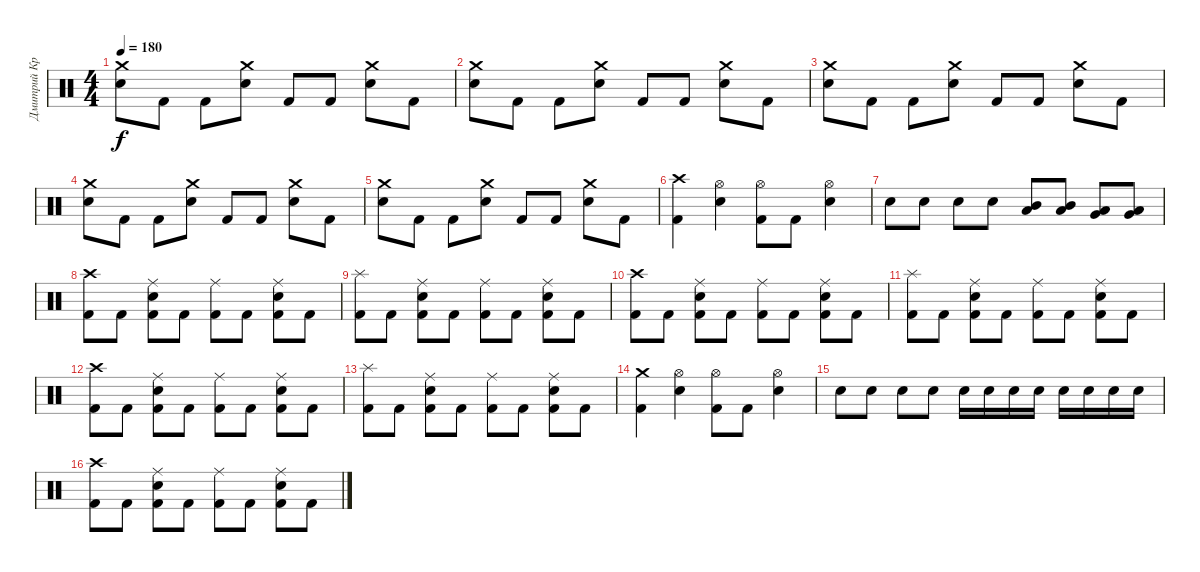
\track ("Дмитрий Кривенков" "Дмитрий Кр") {instrument percussion}
\staff {score}
\articulation defaults
\ts (4 4)
\tempo 180
\clef neutral
\ks c
("Crash medium (hit)" "Electric Snare (hit)").8{dy f} "Kick (hit) 2".8 "Kick (hit) 2".8 ("Electric Snare (hit)" "Crash medium (hit)").8 "Kick (hit) 2".8 "Kick (hit) 2".8 ("Crash medium (hit)" "Electric Snare (hit)").8 "Kick (hit) 2".8 |
("Crash medium (hit)" "Electric Snare (hit)").8 "Kick (hit) 2".8 "Kick (hit) 2".8 ("Electric Snare (hit)" "Crash medium (hit)").8 "Kick (hit) 2".8 "Kick (hit) 2".8 ("Crash medium (hit)" "Electric Snare (hit)").8 "Kick (hit) 2".8 |
("Crash medium (hit)" "Electric Snare (hit)").8 "Kick (hit) 2".8 "Kick (hit) 2".8 ("Electric Snare (hit)" "Crash medium (hit)").8 "Kick (hit) 2".8 "Kick (hit) 2".8 ("Crash medium (hit)" "Electric Snare (hit)").8 "Kick (hit) 2".8 |
("Crash medium (hit)" "Electric Snare (hit)").8 "Kick (hit) 2".8 "Kick (hit) 2".8 ("Electric Snare (hit)" "Crash medium (hit)").8 "Kick (hit) 2".8 "Kick (hit) 2".8 ("Crash medium (hit)" "Electric Snare (hit)").8 "Kick (hit) 2".8 |
("Crash medium (hit)" "Electric Snare (hit)").8 "Kick (hit) 2".8 "Kick (hit) 2".8 ("Electric Snare (hit)" "Crash medium (hit)").8 "Kick (hit) 2".8 "Kick (hit) 2".8 ("Crash medium (hit)" "Electric Snare (hit)").8 "Kick (hit) 2".8 |
("Kick (hit) 2" "Crash high (hit)").4 ("Hi-Hat (open)" "Electric Snare (hit)").4 ("Kick (hit) 2" "Hi-Hat (open)").8 "Kick (hit) 2".8 ("Hi-Hat (open)" "Electric Snare (hit)").4 |
"Electric Snare (hit)".8 "Electric Snare (hit)".8 "Electric Snare (hit)".8 "Electric Snare (hit)".8 ("Low Tom (hit)" "Mid Tom (hit)").8 ("Mid Tom (hit)" "Low Tom (hit)").8 ("Very Low Tom (hit)" "Low Tom (hit)").8 ("Low Tom (hit)" "Very Low Tom (hit)").8 |
("Kick (hit) 2" "Crash high (hit)").8 "Kick (hit) 2".8 ("Kick (hit) 2" "Electric Snare (hit)" "Ride (middle)").8 "Kick (hit) 2".8 ("Kick (hit) 2" "Ride (middle)").8 "Kick (hit) 2".8 ("Ride (middle)" "Electric Snare (hit)" "Kick (hit) 2").8 "Kick (hit) 2".8 |
("Kick (hit) 2" "Splash (hit)").8 "Kick (hit) 2".8 ("Kick (hit) 2" "Electric Snare (hit)" "Ride (middle)").8 "Kick (hit) 2".8 ("Ride (middle)" "Kick (hit) 2").8 "Kick (hit) 2".8 ("Ride (middle)" "Electric Snare (hit)" "Kick (hit) 2").8 "Kick (hit) 2".8 |
("Kick (hit) 2" "Crash high (hit)").8 "Kick (hit) 2".8 ("Kick (hit) 2" "Electric Snare (hit)" "Ride (middle)").8 "Kick (hit) 2".8 ("Kick (hit) 2" "Ride (middle)").8 "Kick (hit) 2".8 ("Ride (middle)" "Electric Snare (hit)" "Kick (hit) 2").8 "Kick (hit) 2".8 |
("Kick (hit) 2" "Splash (hit)").8 "Kick (hit) 2".8 ("Kick (hit) 2" "Electric Snare (hit)" "Ride (middle)").8 "Kick (hit) 2".8 ("Ride (middle)" "Kick (hit) 2").8 "Kick (hit) 2".8 ("Ride (middle)" "Electric Snare (hit)" "Kick (hit) 2").8 "Kick (hit) 2".8 |
("Kick (hit) 2" "Crash high (hit)").8 "Kick (hit) 2".8 ("Kick (hit) 2" "Electric Snare (hit)" "Ride (middle)").8 "Kick (hit) 2".8 ("Kick (hit) 2" "Ride (middle)").8 "Kick (hit) 2".8 ("Ride (middle)" "Electric Snare (hit)" "Kick (hit) 2").8 "Kick (hit) 2".8 |
("Kick (hit) 2" "Splash (hit)").8 "Kick (hit) 2".8 ("Kick (hit) 2" "Electric Snare (hit)" "Ride (middle)").8 "Kick (hit) 2".8 ("Ride (middle)" "Kick (hit) 2").8 "Kick (hit) 2".8 ("Ride (middle)" "Electric Snare (hit)" "Kick (hit) 2").8 "Kick (hit) 2".8 |
("Crash medium (hit)" "Kick (hit) 2").4 ("Electric Snare (hit)" "Hi-Hat (open)").4 ("Kick (hit) 2" "Hi-Hat (open)").8 "Kick (hit) 2".8 ("Electric Snare (hit)" "Hi-Hat (open)").4 |
"Electric Snare (hit)".8 "Electric Snare (hit)".8 "Electric Snare (hit)".8 "Electric Snare (hit)".8 "Snare (hit) 2".16 "Snare (hit) 2".16 "Snare (hit) 2".16 "Snare (hit) 2".16 "Snare (hit) 2".16 "Snare (hit) 2".16 "Snare (hit) 2".16 "Electric Snare (hit)".16 |
("Kick (hit) 2" "Crash high (hit)").8 "Kick (hit) 2".8 ("Kick (hit) 2" "Electric Snare (hit)" "Ride (middle)").8 "Kick (hit) 2".8 ("Kick (hit) 2" "Ride (middle)").8 "Kick (hit) 2".8 ("Ride (middle)" "Electric Snare (hit)" "Kick (hit) 2").8 "Kick (hit) 2".8
